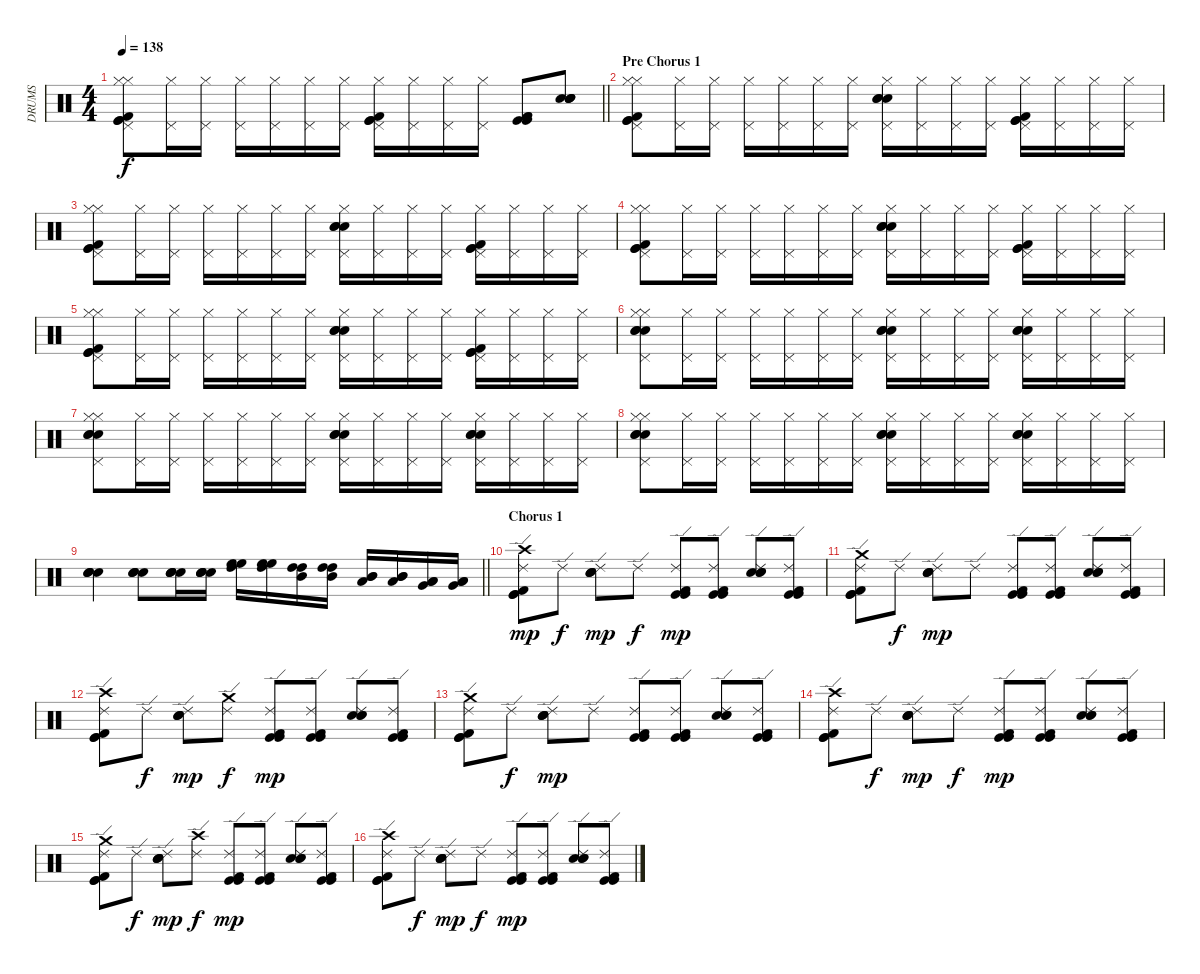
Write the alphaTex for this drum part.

\track ("DRUMS" "DRUMS") {instrument percussion}
\staff {score}
\articulation defaults
\ts (4 4)
\tempo 138
\clef neutral
\barLineRight lightlight
\ks c
("Hi-Hat (closed)" "Pedal Hi-Hat (hit)" "Hi-Hat (closed)" "Kick (hit) 2" "Kick (hit)" "Kick (hit)").8{dy f} ("Hi-Hat (closed)" "Pedal Hi-Hat (hit)").16 ("Hi-Hat (closed)" "Pedal Hi-Hat (hit)").16 ("Hi-Hat (closed)" "Pedal Hi-Hat (hit)").16 ("Hi-Hat (closed)" "Pedal Hi-Hat (hit)").16 ("Hi-Hat (closed)" "Pedal Hi-Hat (hit)").16 ("Hi-Hat (closed)" "Pedal Hi-Hat (hit)").16 ("Hi-Hat (closed)" "Pedal Hi-Hat (hit)" "Kick (hit) 2" "Kick (hit)" "Kick (hit)").16 ("Hi-Hat (closed)" "Pedal Hi-Hat (hit)").16 ("Hi-Hat (closed)" "Pedal Hi-Hat (hit)").16 ("Hi-Hat (closed)" "Pedal Hi-Hat (hit)").16 ("Kick (hit) 2" "Kick (hit) 2" "Kick (hit)" "Kick (hit)").8{volume 10} ("Snare (hit) 2" "Snare (hit) 2" "Electric Snare (hit)" "Snare (hit) 2").8 |
\section ("" "Pre Chorus 1")
("Hi-Hat (closed)" "Pedal Hi-Hat (hit)" "Hi-Hat (closed)" "Kick (hit) 2" "Kick (hit)" "Kick (hit)").8{volume 8 balance 8} ("Hi-Hat (closed)" "Pedal Hi-Hat (hit)").16 ("Hi-Hat (closed)" "Pedal Hi-Hat (hit)").16 ("Hi-Hat (closed)" "Pedal Hi-Hat (hit)").16 ("Hi-Hat (closed)" "Pedal Hi-Hat (hit)").16 ("Hi-Hat (closed)" "Pedal Hi-Hat (hit)").16 ("Hi-Hat (closed)" "Pedal Hi-Hat (hit)").16 ("Hi-Hat (closed)" "Pedal Hi-Hat (hit)" "Snare (hit) 2" "Electric Snare (hit)" "Snare (hit) 2").16 ("Hi-Hat (closed)" "Pedal Hi-Hat (hit)").16 ("Hi-Hat (closed)" "Pedal Hi-Hat (hit)").16 ("Hi-Hat (closed)" "Pedal Hi-Hat (hit)").16 ("Hi-Hat (closed)" "Pedal Hi-Hat (hit)" "Kick (hit) 2" "Kick (hit)" "Kick (hit)").16 ("Hi-Hat (closed)" "Pedal Hi-Hat (hit)").16 ("Hi-Hat (closed)" "Pedal Hi-Hat (hit)").16 ("Hi-Hat (closed)" "Pedal Hi-Hat (hit)").16 |
("Hi-Hat (closed)" "Pedal Hi-Hat (hit)" "Hi-Hat (closed)" "Kick (hit) 2" "Kick (hit)" "Kick (hit)").8 ("Hi-Hat (closed)" "Pedal Hi-Hat (hit)").16 ("Hi-Hat (closed)" "Pedal Hi-Hat (hit)").16 ("Hi-Hat (closed)" "Pedal Hi-Hat (hit)").16 ("Hi-Hat (closed)" "Pedal Hi-Hat (hit)").16 ("Hi-Hat (closed)" "Pedal Hi-Hat (hit)").16 ("Hi-Hat (closed)" "Pedal Hi-Hat (hit)").16 ("Hi-Hat (closed)" "Pedal Hi-Hat (hit)" "Snare (hit) 2" "Electric Snare (hit)" "Snare (hit) 2").16 ("Hi-Hat (closed)" "Pedal Hi-Hat (hit)").16 ("Hi-Hat (closed)" "Pedal Hi-Hat (hit)").16 ("Hi-Hat (closed)" "Pedal Hi-Hat (hit)").16 ("Hi-Hat (closed)" "Pedal Hi-Hat (hit)" "Kick (hit) 2" "Kick (hit)" "Kick (hit)").16 ("Hi-Hat (closed)" "Pedal Hi-Hat (hit)").16 ("Hi-Hat (closed)" "Pedal Hi-Hat (hit)").16 ("Hi-Hat (closed)" "Pedal Hi-Hat (hit)").16 |
("Hi-Hat (closed)" "Pedal Hi-Hat (hit)" "Hi-Hat (closed)" "Kick (hit) 2" "Kick (hit)" "Kick (hit)").8 ("Hi-Hat (closed)" "Pedal Hi-Hat (hit)").16 ("Hi-Hat (closed)" "Pedal Hi-Hat (hit)").16 ("Hi-Hat (closed)" "Pedal Hi-Hat (hit)").16 ("Hi-Hat (closed)" "Pedal Hi-Hat (hit)").16 ("Hi-Hat (closed)" "Pedal Hi-Hat (hit)").16 ("Hi-Hat (closed)" "Pedal Hi-Hat (hit)").16 ("Hi-Hat (closed)" "Pedal Hi-Hat (hit)" "Snare (hit) 2" "Electric Snare (hit)" "Snare (hit) 2").16 ("Hi-Hat (closed)" "Pedal Hi-Hat (hit)").16 ("Hi-Hat (closed)" "Pedal Hi-Hat (hit)").16 ("Hi-Hat (closed)" "Pedal Hi-Hat (hit)").16 ("Hi-Hat (closed)" "Pedal Hi-Hat (hit)" "Kick (hit) 2" "Kick (hit)" "Kick (hit)").16 ("Hi-Hat (closed)" "Pedal Hi-Hat (hit)").16 ("Hi-Hat (closed)" "Pedal Hi-Hat (hit)").16 ("Hi-Hat (closed)" "Pedal Hi-Hat (hit)").16 |
("Hi-Hat (closed)" "Pedal Hi-Hat (hit)" "Hi-Hat (closed)" "Kick (hit) 2" "Kick (hit)" "Kick (hit)").8 ("Hi-Hat (closed)" "Pedal Hi-Hat (hit)").16 ("Hi-Hat (closed)" "Pedal Hi-Hat (hit)").16 ("Hi-Hat (closed)" "Pedal Hi-Hat (hit)").16 ("Hi-Hat (closed)" "Pedal Hi-Hat (hit)").16 ("Hi-Hat (closed)" "Pedal Hi-Hat (hit)").16 ("Hi-Hat (closed)" "Pedal Hi-Hat (hit)").16 ("Hi-Hat (closed)" "Pedal Hi-Hat (hit)" "Snare (hit) 2" "Electric Snare (hit)" "Snare (hit) 2").16 ("Hi-Hat (closed)" "Pedal Hi-Hat (hit)").16 ("Hi-Hat (closed)" "Pedal Hi-Hat (hit)").16 ("Hi-Hat (closed)" "Pedal Hi-Hat (hit)").16 ("Hi-Hat (closed)" "Pedal Hi-Hat (hit)" "Kick (hit) 2" "Kick (hit)" "Kick (hit)").16 ("Hi-Hat (closed)" "Pedal Hi-Hat (hit)").16 ("Hi-Hat (closed)" "Pedal Hi-Hat (hit)").16 ("Hi-Hat (closed)" "Pedal Hi-Hat (hit)").16 |
("Hi-Hat (closed)" "Pedal Hi-Hat (hit)" "Hi-Hat (closed)" "Snare (hit) 2" "Electric Snare (hit)" "Snare (hit) 2").8 ("Hi-Hat (closed)" "Pedal Hi-Hat (hit)").16 ("Hi-Hat (closed)" "Pedal Hi-Hat (hit)").16 ("Hi-Hat (closed)" "Pedal Hi-Hat (hit)").16 ("Hi-Hat (closed)" "Pedal Hi-Hat (hit)").16 ("Hi-Hat (closed)" "Pedal Hi-Hat (hit)").16 ("Hi-Hat (closed)" "Pedal Hi-Hat (hit)").16 ("Hi-Hat (closed)" "Pedal Hi-Hat (hit)" "Snare (hit) 2" "Electric Snare (hit)" "Snare (hit) 2").16 ("Hi-Hat (closed)" "Pedal Hi-Hat (hit)").16 ("Hi-Hat (closed)" "Pedal Hi-Hat (hit)").16 ("Hi-Hat (closed)" "Pedal Hi-Hat (hit)").16 ("Hi-Hat (closed)" "Pedal Hi-Hat (hit)" "Snare (hit) 2" "Electric Snare (hit)" "Snare (hit) 2").16 ("Hi-Hat (closed)" "Pedal Hi-Hat (hit)").16 ("Hi-Hat (closed)" "Pedal Hi-Hat (hit)").16 ("Hi-Hat (closed)" "Pedal Hi-Hat (hit)").16 |
("Hi-Hat (closed)" "Pedal Hi-Hat (hit)" "Hi-Hat (closed)" "Snare (hit) 2" "Electric Snare (hit)" "Snare (hit) 2").8 ("Hi-Hat (closed)" "Pedal Hi-Hat (hit)").16 ("Hi-Hat (closed)" "Pedal Hi-Hat (hit)").16 ("Hi-Hat (closed)" "Pedal Hi-Hat (hit)").16 ("Hi-Hat (closed)" "Pedal Hi-Hat (hit)").16 ("Hi-Hat (closed)" "Pedal Hi-Hat (hit)").16 ("Hi-Hat (closed)" "Pedal Hi-Hat (hit)").16 ("Hi-Hat (closed)" "Pedal Hi-Hat (hit)" "Snare (hit) 2" "Electric Snare (hit)" "Snare (hit) 2").16 ("Hi-Hat (closed)" "Pedal Hi-Hat (hit)").16 ("Hi-Hat (closed)" "Pedal Hi-Hat (hit)").16 ("Hi-Hat (closed)" "Pedal Hi-Hat (hit)").16 ("Hi-Hat (closed)" "Pedal Hi-Hat (hit)" "Snare (hit) 2" "Electric Snare (hit)" "Snare (hit) 2").16 ("Hi-Hat (closed)" "Pedal Hi-Hat (hit)").16 ("Hi-Hat (closed)" "Pedal Hi-Hat (hit)").16 ("Hi-Hat (closed)" "Pedal Hi-Hat (hit)").16 |
("Hi-Hat (closed)" "Pedal Hi-Hat (hit)" "Hi-Hat (closed)" "Snare (hit) 2" "Electric Snare (hit)" "Snare (hit) 2").8 ("Hi-Hat (closed)" "Pedal Hi-Hat (hit)").16 ("Hi-Hat (closed)" "Pedal Hi-Hat (hit)").16 ("Hi-Hat (closed)" "Pedal Hi-Hat (hit)").16 ("Hi-Hat (closed)" "Pedal Hi-Hat (hit)").16 ("Hi-Hat (closed)" "Pedal Hi-Hat (hit)").16 ("Hi-Hat (closed)" "Pedal Hi-Hat (hit)").16 ("Hi-Hat (closed)" "Pedal Hi-Hat (hit)" "Snare (hit) 2" "Electric Snare (hit)" "Snare (hit) 2").16 ("Hi-Hat (closed)" "Pedal Hi-Hat (hit)").16 ("Hi-Hat (closed)" "Pedal Hi-Hat (hit)").16 ("Hi-Hat (closed)" "Pedal Hi-Hat (hit)").16 ("Hi-Hat (closed)" "Pedal Hi-Hat (hit)" "Snare (hit) 2" "Electric Snare (hit)" "Snare (hit) 2").16 ("Hi-Hat (closed)" "Pedal Hi-Hat (hit)").16 ("Hi-Hat (closed)" "Pedal Hi-Hat (hit)").16 ("Hi-Hat (closed)" "Pedal Hi-Hat (hit)").16 |
\barLineRight lightlight
("Snare (hit) 2" "Electric Snare (hit)" "Snare (hit) 2" "Electric Snare (hit)").4 ("Snare (hit) 2" "Electric Snare (hit)" "Snare (hit) 2" "Electric Snare (hit)").8 ("Snare (hit) 2" "Electric Snare (hit)" "Snare (hit) 2" "Electric Snare (hit)").16 ("Snare (hit) 2" "Electric Snare (hit)" "Snare (hit) 2" "Electric Snare (hit)").16 ("High Floor Tom (hit)" "High Tom (hit)" "High Floor Tom (hit)").16{volume 12 balance 0} ("High Floor Tom (hit)" "High Tom (hit)" "High Floor Tom (hit)").16 ("High Tom (hit)" "Mid Tom (hit)" "High Tom (hit)").16{balance 4} ("High Tom (hit)" "Mid Tom (hit)" "High Tom (hit)").16 ("Mid Tom (hit)" "Low Tom (hit)" "Mid Tom (hit)").16{balance 12} ("Mid Tom (hit)" "Low Tom (hit)" "Mid Tom (hit)").16 ("Low Tom (hit)" "Very Low Tom (hit)" "Low Tom (hit)").16{balance 16} ("Low Tom (hit)" "Very Low Tom (hit)" "Low Tom (hit)").16 |
\section ("" "Chorus 1")
("Ride (edge) 2" "Kick (hit) 2" "Kick (hit)" "Kick (hit)" "Crash high (hit)").8{dy mp volume 8 balance 8} "Ride (edge) 2".8{dy f} ("Ride (edge) 2" "Electric Snare (hit)" "Snare (hit) 2" "Snare (hit) 2").8{dy mp} "Ride (edge) 2".8{dy f} ("Ride (edge) 2" "Kick (hit) 2" "Kick (hit)" "Kick (hit)").8{dy mp} ("Ride (edge) 2" "Kick (hit) 2" "Kick (hit)" "Kick (hit)").8 ("Ride (edge) 2" "Electric Snare (hit)" "Snare (hit) 2" "Snare (hit) 2").8 ("Ride (edge) 2" "Kick (hit) 2" "Kick (hit)" "Kick (hit)").8 |
("Ride (edge) 2" "Kick (hit) 2" "Kick (hit)" "Kick (hit)" "Crash medium (hit)").8 "Ride (edge) 2".8{dy f} ("Ride (edge) 2" "Electric Snare (hit)" "Snare (hit) 2" "Snare (hit) 2").8{dy mp} "Ride (edge) 2".8 ("Ride (edge) 2" "Kick (hit) 2" "Kick (hit)" "Kick (hit)").8 ("Ride (edge) 2" "Kick (hit) 2" "Kick (hit)" "Kick (hit)").8 ("Ride (edge) 2" "Electric Snare (hit)" "Snare (hit) 2" "Snare (hit) 2").8 ("Ride (edge) 2" "Kick (hit) 2" "Kick (hit)" "Kick (hit)").8 |
("Ride (edge) 2" "Kick (hit) 2" "Kick (hit)" "Kick (hit)" "Crash high (hit)").8 "Ride (edge) 2".8{dy f} ("Ride (edge) 2" "Electric Snare (hit)" "Snare (hit) 2" "Snare (hit) 2").8{dy mp} ("Ride (edge) 2" "Crash medium (hit)").8{dy f} ("Ride (edge) 2" "Kick (hit) 2" "Kick (hit)" "Kick (hit)").8{dy mp} ("Ride (edge) 2" "Kick (hit) 2" "Kick (hit)" "Kick (hit)").8 ("Ride (edge) 2" "Electric Snare (hit)" "Snare (hit) 2" "Snare (hit) 2").8 ("Ride (edge) 2" "Kick (hit) 2" "Kick (hit)" "Kick (hit)").8 |
("Ride (edge) 2" "Kick (hit) 2" "Kick (hit)" "Kick (hit)" "Crash medium (hit)").8 "Ride (edge) 2".8{dy f} ("Ride (edge) 2" "Electric Snare (hit)" "Snare (hit) 2" "Snare (hit) 2").8{dy mp} "Ride (edge) 2".8 ("Ride (edge) 2" "Kick (hit) 2" "Kick (hit)" "Kick (hit)").8 ("Ride (edge) 2" "Kick (hit) 2" "Kick (hit)" "Kick (hit)").8 ("Ride (edge) 2" "Electric Snare (hit)" "Snare (hit) 2" "Snare (hit) 2").8 ("Ride (edge) 2" "Kick (hit) 2" "Kick (hit)" "Kick (hit)").8 |
("Ride (edge) 2" "Kick (hit) 2" "Kick (hit)" "Kick (hit)" "Crash high (hit)").8 "Ride (edge) 2".8{dy f} ("Ride (edge) 2" "Electric Snare (hit)" "Snare (hit) 2" "Snare (hit) 2").8{dy mp} "Ride (edge) 2".8{dy f} ("Ride (edge) 2" "Kick (hit) 2" "Kick (hit)" "Kick (hit)").8{dy mp} ("Ride (edge) 2" "Kick (hit) 2" "Kick (hit)" "Kick (hit)").8 ("Ride (edge) 2" "Electric Snare (hit)" "Snare (hit) 2" "Snare (hit) 2").8 ("Ride (edge) 2" "Kick (hit) 2" "Kick (hit)" "Kick (hit)").8 |
("Ride (edge) 2" "Kick (hit) 2" "Kick (hit)" "Kick (hit)" "Crash medium (hit)").8 "Ride (edge) 2".8{dy f} ("Ride (edge) 2" "Electric Snare (hit)" "Snare (hit) 2" "Snare (hit) 2").8{dy mp} ("Ride (edge) 2" "Crash high (hit)").8{dy f} ("Ride (edge) 2" "Kick (hit) 2" "Kick (hit)" "Kick (hit)").8{dy mp} ("Ride (edge) 2" "Kick (hit) 2" "Kick (hit)" "Kick (hit)").8 ("Ride (edge) 2" "Electric Snare (hit)" "Snare (hit) 2" "Snare (hit) 2").8 ("Ride (edge) 2" "Kick (hit) 2" "Kick (hit)" "Kick (hit)").8 |
("Ride (edge) 2" "Kick (hit) 2" "Kick (hit)" "Kick (hit)" "Crash high (hit)").8 "Ride (edge) 2".8{dy f} ("Ride (edge) 2" "Electric Snare (hit)" "Snare (hit) 2" "Snare (hit) 2").8{dy mp} "Ride (edge) 2".8{dy f} ("Ride (edge) 2" "Kick (hit) 2" "Kick (hit)" "Kick (hit)").8{dy mp} ("Ride (edge) 2" "Kick (hit) 2" "Kick (hit)" "Kick (hit)").8 ("Ride (edge) 2" "Electric Snare (hit)" "Snare (hit) 2" "Snare (hit) 2").8 ("Ride (edge) 2" "Kick (hit) 2" "Kick (hit)" "Kick (hit)").8
